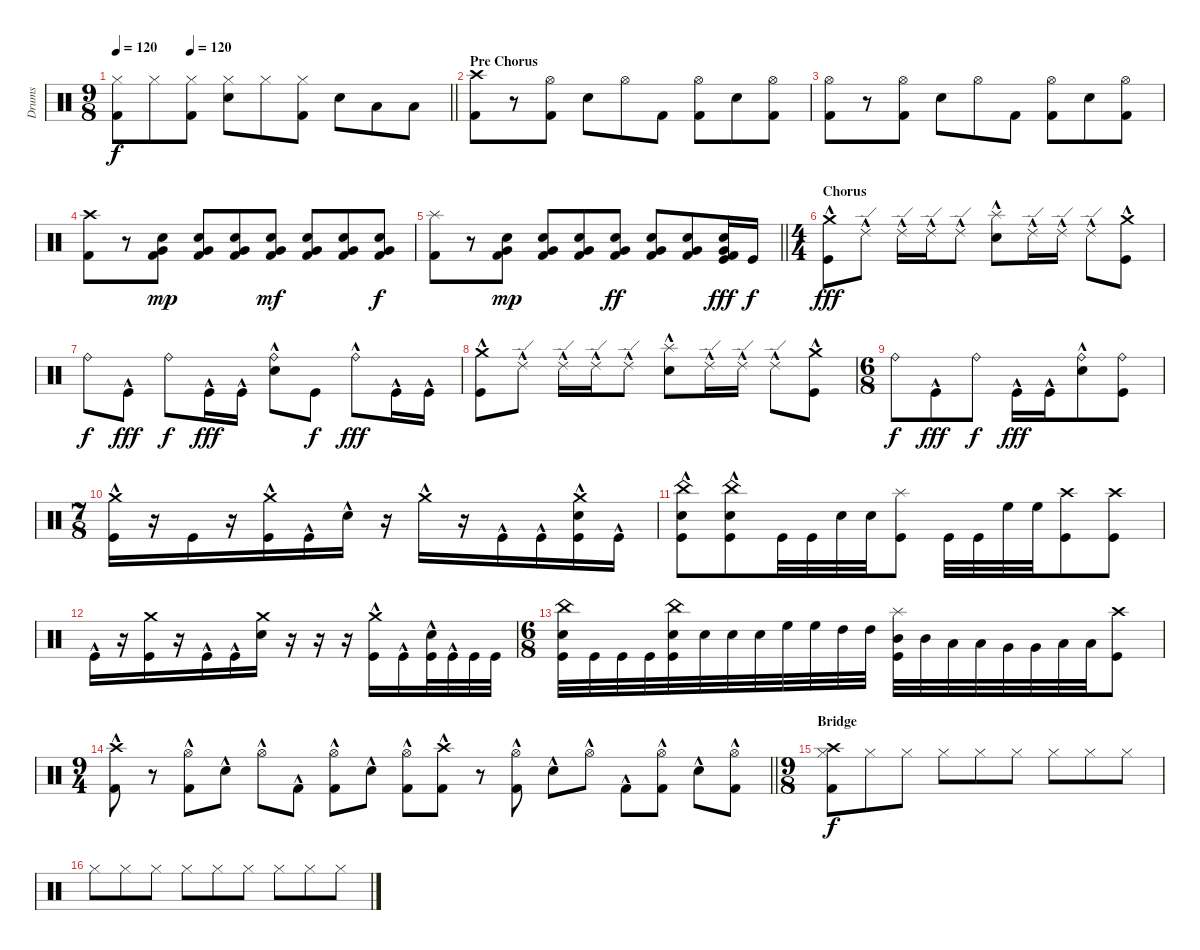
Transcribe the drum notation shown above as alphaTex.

\track ("Drums" "Drums") {instrument percussion}
\staff {score}
\articulation defaults
\ts (9 8)
\tempo 120
\tempo (120 0.2222222222222222)
\clef neutral
\barLineRight lightlight
\ks c
("Kick (hit) 2" "Hi-Hat (closed)").8{dy f} "Hi-Hat (closed)".8 ("Kick (hit) 2" "Hi-Hat (closed)").8 ("Electric Snare (hit)" "Hi-Hat (closed)").8 "Hi-Hat (closed)".8 ("Kick (hit) 2" "Hi-Hat (closed)").8 "Electric Snare (hit)".8 "Low Tom (hit)".8 "Low Floor Tom (hit)".8 |
\section ("" "Pre Chorus")
("Kick (hit) 2" "Crash high (hit)").8 r.8 ("Kick (hit) 2" "Hi-Hat (open)").8 "Electric Snare (hit)".8 "Hi-Hat (open)".8 "Kick (hit) 2".8 ("Kick (hit) 2" "Hi-Hat (open)").8 "Electric Snare (hit)".8 ("Kick (hit) 2" "Hi-Hat (open)").8 |
("Kick (hit) 2" "Hi-Hat (open)").8 r.8 ("Kick (hit) 2" "Hi-Hat (open)").8 "Electric Snare (hit)".8 "Hi-Hat (open)".8 "Kick (hit) 2".8 ("Kick (hit) 2" "Hi-Hat (open)").8 "Electric Snare (hit)".8 ("Kick (hit) 2" "Hi-Hat (open)").8 |
("Kick (hit) 2" "Crash high (hit)").8 r.8 ("Electric Snare (hit)" "Very Low Tom (hit)" "Kick (hit) 2").8{dy mp} ("Electric Snare (hit)" "Very Low Tom (hit)" "Kick (hit) 2").8 ("Electric Snare (hit)" "Very Low Tom (hit)" "Kick (hit) 2").8 ("Kick (hit) 2" "Very Low Tom (hit)" "Electric Snare (hit)").8{dy mf} ("Electric Snare (hit)" "Very Low Tom (hit)" "Kick (hit) 2").8 ("Kick (hit) 2" "Very Low Tom (hit)" "Electric Snare (hit)").8 ("Electric Snare (hit)" "Very Low Tom (hit)" "Kick (hit) 2").8{dy f} |
\barLineRight lightlight
("Kick (hit) 2" "Splash (hit)").8 r.8 ("Electric Snare (hit)" "Very Low Tom (hit)" "Kick (hit) 2").8{dy mp} ("Electric Snare (hit)" "Very Low Tom (hit)" "Kick (hit) 2").8 ("Electric Snare (hit)" "Very Low Tom (hit)" "Kick (hit) 2").8 ("Kick (hit) 2" "Very Low Tom (hit)" "Electric Snare (hit)").8{dy ff} ("Electric Snare (hit)" "Very Low Tom (hit)" "Kick (hit) 2").8 ("Kick (hit) 2" "Very Low Tom (hit)" "Electric Snare (hit)").8 ("Electric Snare (hit)" "Very Low Tom (hit)" "Kick (hit) 2" "Kick (hit)").16{dy fff} "Kick (hit)".16{dy f} |
\ts (4 4)
\section ("" "Chorus")
("Crash medium (hit)"{hac} "Kick (hit)"{hac}).8{dy fff} "Ride (edge) 2"{hac}.8 "Ride (edge) 2"{hac}.16 "Ride (edge) 2"{hac}.16 "Ride (edge) 2"{hac}.8 ("Splash (hit)"{hac} "Electric Snare (hit)"{hac}).8 "Ride (edge) 2"{hac}.16 "Ride (edge) 2"{hac}.16 "Ride (edge) 2"{hac}.8 ("Crash medium (hit)"{hac} "Kick (hit)"{hac}).8 |
"Ride (bell)".8{dy f} "Kick (hit)"{hac}.8{dy fff} "Ride (bell)".8{dy f} "Kick (hit)"{hac}.16{dy fff} "Kick (hit)"{hac}.16 ("Ride (bell)"{hac} "Electric Snare (hit)"{hac}).8 "Kick (hit)".8{dy f} "Ride (bell)"{hac}.8{dy fff} "Kick (hit)"{hac}.16 "Kick (hit)"{hac}.16 |
("Crash medium (hit)"{hac} "Kick (hit)"{hac}).8 "Ride (edge) 2"{hac}.8 "Ride (edge) 2"{hac}.16 "Ride (edge) 2"{hac}.16 "Ride (edge) 2"{hac}.8 ("Splash (hit)"{hac} "Electric Snare (hit)"{hac}).8 "Ride (edge) 2"{hac}.16 "Ride (edge) 2"{hac}.16 "Ride (edge) 2"{hac}.8 ("Crash medium (hit)"{hac} "Kick (hit)"{hac}).8 |
\ts (6 8)
"Ride (bell)".8{dy f} "Kick (hit)"{hac}.8{dy fff} "Ride (bell)".8{dy f} "Kick (hit)"{hac}.16{dy fff} "Kick (hit)"{hac}.16 ("Ride (bell)"{hac} "Electric Snare (hit)"{hac}).8 ("Ride (bell)" "Kick (hit)").8 |
\ts (7 8)
("Crash medium (hit)"{hac} "Kick (hit)"{hac}).16 r.16 "Kick (hit)".16 r.16 ("Crash medium (hit)"{hac} "Kick (hit)"{hac}).16 "Kick (hit)"{hac}.16 "Electric Snare (hit)"{hac}.16 r.16 "Crash medium (hit)"{hac}.16 r.16 "Kick (hit)"{hac}.16 "Kick (hit)"{hac}.16 ("Crash medium (hit)"{hac} "Electric Snare (hit)"{hac} "Kick (hit)").16 "Kick (hit)"{hac}.16 |
("China (hit)"{hac} "Electric Snare (hit)"{hac} "Kick (hit)"{hac}).8 ("China (hit)"{hac} "Electric Snare (hit)"{hac} "Kick (hit)"{hac}).8 "Kick (hit)".32 "Kick (hit)".32 "Electric Snare (hit)".32 "Electric Snare (hit)".32 ("Splash (hit)" "Kick (hit)").8 "Kick (hit)".32 "Kick (hit)".32 "High Floor Tom (hit)".32 "High Floor Tom (hit)".32 ("Crash high (hit)" "Kick (hit)").8 ("Crash high (hit)" "Kick (hit)").8 |
"Kick (hit)"{hac}.16 r.16 ("Crash medium (hit)" "Kick (hit)").16 r.16 "Kick (hit)"{hac}.16 "Kick (hit)"{hac}.16 ("Crash medium (hit)" "Electric Snare (hit)").16 r.16 r.16 r.16 ("Crash medium (hit)" "Kick (hit)"{hac}).16 "Kick (hit)"{hac}.16 ("Electric Snare (hit)"{hac} "Kick (hit)").32 "Kick (hit)"{hac}.32 "Kick (hit)".32 "Kick (hit)".32 |
\ts (6 8)
("China (hit)" "Electric Snare (hit)" "Kick (hit)").32 "Kick (hit)".32 "Kick (hit)".32 "Kick (hit)".32 ("China (hit)" "Electric Snare (hit)" "Kick (hit)").32 "Electric Snare (hit)".32 "Electric Snare (hit)".32 "Electric Snare (hit)".32 "High Floor Tom (hit)".32 "High Floor Tom (hit)".32 "High Tom (hit)".32 "High Tom (hit)".32 ("Splash (hit)" "Mid Tom (hit)" "Kick (hit)").32 "Mid Tom (hit)".32 "Low Tom (hit)".32 "Low Tom (hit)".32 "Very Low Tom (hit)".32 "Very Low Tom (hit)".32 "Low Floor Tom (hit)".32 "Low Floor Tom (hit)".32 ("Crash high (hit)" "Kick (hit)").8 |
\ts (9 4)
\barLineRight lightlight
("Kick (hit) 2"{hac} "Crash high (hit)"{hac}).8 r.8 ("Kick (hit) 2"{hac} "Hi-Hat (open)"{hac}).8 "Electric Snare (hit)"{hac}.8 "Hi-Hat (open)"{hac}.8 "Kick (hit) 2"{hac}.8 ("Kick (hit) 2"{hac} "Hi-Hat (open)"{hac}).8 "Electric Snare (hit)"{hac}.8 ("Kick (hit) 2"{hac} "Hi-Hat (open)"{hac}).8 ("Kick (hit) 2"{hac} "Crash high (hit)"{hac}).8 r.8 ("Kick (hit) 2"{hac} "Hi-Hat (open)"{hac}).8 "Electric Snare (hit)"{hac}.8 "Hi-Hat (open)"{hac}.8 "Kick (hit) 2"{hac}.8 ("Kick (hit) 2"{hac} "Hi-Hat (open)"{hac}).8 "Electric Snare (hit)"{hac}.8 ("Kick (hit) 2"{hac} "Hi-Hat (open)"{hac}).8 |
\ts (9 8)
\section ("" "Bridge")
("Kick (hit) 2" "Crash high (hit)" "Hi-Hat (closed)").8{dy f} "Hi-Hat (closed)".8 "Hi-Hat (closed)".8 "Hi-Hat (closed)".8 "Hi-Hat (closed)".8 "Hi-Hat (closed)".8 "Hi-Hat (closed)".8 "Hi-Hat (closed)".8 "Hi-Hat (closed)".8 |
"Hi-Hat (closed)".8 "Hi-Hat (closed)".8 "Hi-Hat (closed)".8 "Hi-Hat (closed)".8 "Hi-Hat (closed)".8 "Hi-Hat (closed)".8 "Hi-Hat (closed)".8 "Hi-Hat (closed)".8 "Hi-Hat (closed)".8
